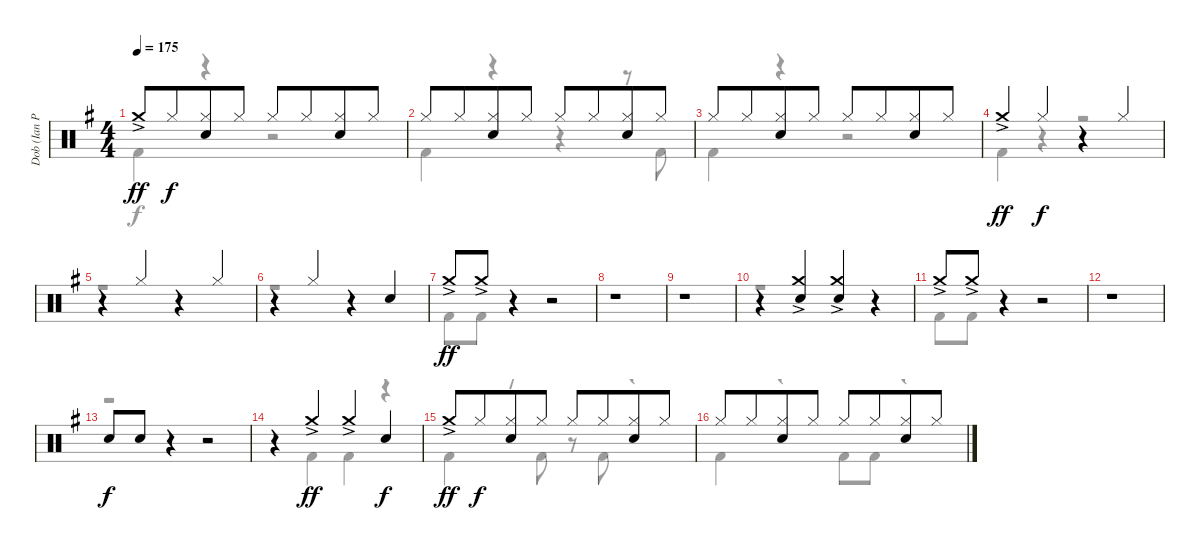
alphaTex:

\track ("Dob (Ian Paice)" "Dob (Ian P") {instrument percussion}
\staff {score}
\articulation defaults
\voice
\ts (4 4)
\tempo 175
\clef neutral
\ks g "Crash medium (hit)"{ac}.8{dy ff} "Hi-Hat (closed)".8{dy f beam merge}
("Hi-Hat (closed)" "Electric Snare (hit)").8 "Hi-Hat (closed)".8 "Hi-Hat (closed)".8 "Hi-Hat (closed)".8{beam merge} ("Hi-Hat (closed)" "Electric Snare (hit)").8 "Hi-Hat (closed)".8 |
"Hi-Hat (closed)".8 "Hi-Hat (closed)".8{beam merge} ("Hi-Hat (closed)" "Electric Snare (hit)").8 "Hi-Hat (closed)".8 "Hi-Hat (closed)".8 "Hi-Hat (closed)".8{beam merge} ("Hi-Hat (closed)" "Electric Snare (hit)").8 "Hi-Hat (closed)".8 |
"Hi-Hat (closed)".8 "Hi-Hat (closed)".8{beam merge} ("Hi-Hat (closed)" "Electric Snare (hit)").8 "Hi-Hat (closed)".8 "Hi-Hat (closed)".8 "Hi-Hat (closed)".8{beam merge} ("Hi-Hat (closed)" "Electric Snare (hit)").8 "Hi-Hat (closed)".8 |
"Crash medium (hit)"{ac}.4{dy ff} "Hi-Hat (closed)".4{dy f} r.4 "Hi-Hat (closed)".4 |
r.4 "Hi-Hat (closed)".4 r.4 "Hi-Hat (closed)".4 |
r.4 "Hi-Hat (closed)".4 r.4 "Electric Snare (hit)".4 |
"Crash medium (hit)"{ac}.8{dy ff} "Crash medium (hit)"{ac}.8 r.4 r.2 |
r.1 |
r.1 |
r.4 ("Crash medium (hit)"{ac} "Electric Snare (hit)").4 ("Crash medium (hit)"{ac} "Electric Snare (hit)").4 r.4 |
"Crash medium (hit)"{ac}.8 "Crash medium (hit)"{ac}.8 r.4 r.2 |
r.1 |
"Electric Snare (hit)".8{dy f} "Electric Snare (hit)".8 r.4 r.2 |
r.4 "Crash medium (hit)"{ac}.4{dy ff} "Crash medium (hit)"{ac}.4 "Electric Snare (hit)".4{dy f} |
"Crash medium (hit)"{ac}.8{dy ff} "Hi-Hat (closed)".8{dy f beam merge} ("Hi-Hat (closed)" "Electric Snare (hit)").8 "Hi-Hat (closed)".8 "Hi-Hat (closed)".8 "Hi-Hat (closed)".8{beam merge} ("Hi-Hat (closed)" "Electric Snare (hit)").8 "Hi-Hat (closed)".8 |
"Hi-Hat (closed)".8 "Hi-Hat (closed)".8{beam merge} ("Hi-Hat (closed)" "Electric Snare (hit)").8 "Hi-Hat (closed)".8 "Hi-Hat (closed)".8 "Hi-Hat (closed)".8{beam merge} ("Hi-Hat (closed)" "Electric Snare (hit)").8 "Hi-Hat (closed)".8
\voice
\clef neutral
\ottava regular
\simile none
\ks g "Kick (hit) 2".4{dy f}
r.4 r.2 |
"Kick (hit) 2".4 r.4 r.4 r.8 "Kick (hit) 2".8 |
"Kick (hit) 2".4 r.4 r.2 |
"Kick (hit) 2".4 r.4 r.2 |
r.1 |
r.1 |
"Kick (hit) 2".8 "Kick (hit) 2".8 r.4 r.2 |
r.1 |
r.1 |
r.1 |
"Kick (hit) 2".8 "Kick (hit) 2".8 r.4 r.2 |
r.1 |
r.1 |
r.4 "Kick (hit) 2".4 "Kick (hit) 2".4 r.4 |
"Kick (hit) 2".4 r.8 "Kick (hit) 2".8 r.8 "Kick (hit) 2".8 r.4 |
"Kick (hit) 2".4 r.4 "Kick (hit) 2".8 "Kick (hit) 2".8 r.4
